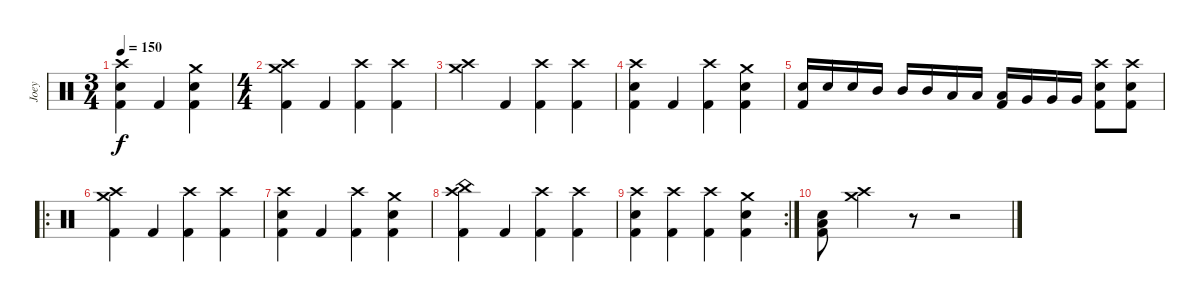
\track ("Joey" "Joey") {instrument percussion}
\staff {score}
\articulation defaults
\ts (3 4)
\tempo 150
\clef neutral
\ks c
("Crash high (hit)" "Electric Snare (hit)" "Kick (hit) 2").4{dy f} "Kick (hit) 2".4 ("Crash medium (hit)" "Electric Snare (hit)" "Kick (hit) 2").4 |
\ts (4 4)
("Crash medium (hit)" "Crash high (hit)" "Kick (hit) 2").4 "Kick (hit) 2".4 ("Crash high (hit)" "Kick (hit) 2").4 ("Crash high (hit)" "Kick (hit) 2").4 |
("Crash high (hit)" "Crash medium (hit)").4 "Kick (hit) 2".4 ("Crash high (hit)" "Kick (hit) 2").4 ("Crash high (hit)" "Kick (hit) 2").4 |
("Crash high (hit)" "Electric Snare (hit)" "Kick (hit) 2").4 "Kick (hit) 2".4 ("Crash high (hit)" "Kick (hit) 2").4 ("Crash medium (hit)" "Electric Snare (hit)" "Kick (hit) 2").4 |
("Electric Snare (hit)" "Kick (hit) 2").16 "Electric Snare (hit)".16 "Electric Snare (hit)".16 "Mid Tom (hit)".16 "Mid Tom (hit)".16 "Mid Tom (hit)".16 "Low Tom (hit)".16 "Low Tom (hit)".16 ("Low Tom (hit)" "Kick (hit) 2").16 "Very Low Tom (hit)".16 "Very Low Tom (hit)".16 "Very Low Tom (hit)".16 ("Crash high (hit)" "Electric Snare (hit)" "Kick (hit) 2").8 ("Crash high (hit)" "Electric Snare (hit)" "Kick (hit) 2").8 |
\ro
("Crash high (hit)" "Crash medium (hit)" "Kick (hit) 2").4 "Kick (hit) 2".4 ("Crash high (hit)" "Kick (hit) 2").4 ("Crash high (hit)" "Kick (hit) 2").4 |
("Crash high (hit)" "Electric Snare (hit)" "Kick (hit) 2").4 "Kick (hit) 2".4 ("Crash high (hit)" "Kick (hit) 2").4 ("Crash medium (hit)" "Electric Snare (hit)" "Kick (hit) 2").4 |
("China (hit)" "Crash high (hit)" "Kick (hit) 2").4 "Kick (hit) 2".4 ("Crash high (hit)" "Kick (hit) 2").4 ("Crash high (hit)" "Kick (hit) 2").4 |
\rc 2
("Crash high (hit)" "Electric Snare (hit)" "Kick (hit) 2").4 ("Crash high (hit)" "Kick (hit) 2").4 ("Crash high (hit)" "Kick (hit) 2").4 ("Crash medium (hit)" "Electric Snare (hit)" "Kick (hit) 2").4 |
("Low Floor Tom (hit)" "Electric Snare (hit)" "Kick (hit) 2").8 ("Crash high (hit)" "Crash medium (hit)").4 r.8 r.2
